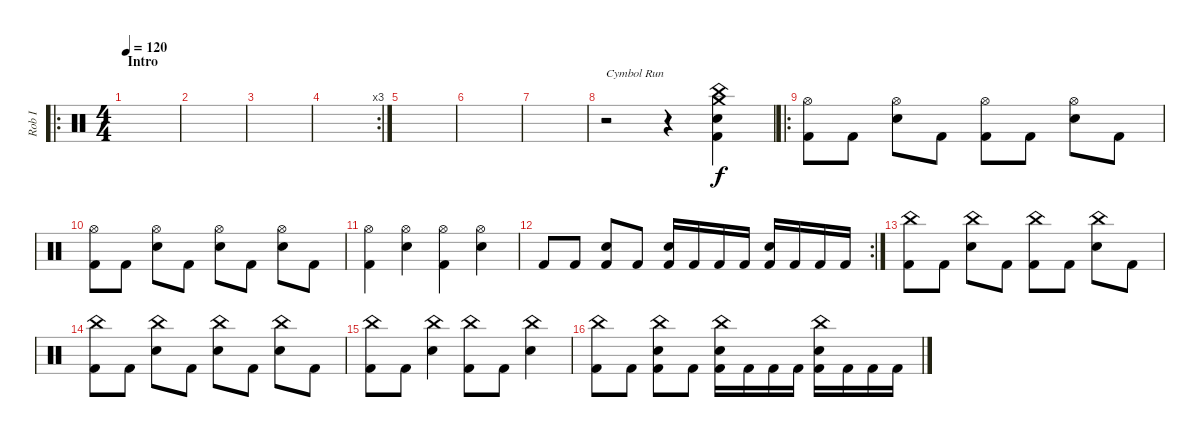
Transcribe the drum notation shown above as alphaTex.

\track ("Rob I" "Rob I") {instrument percussion}
\staff {score}
\articulation defaults
\ro
\ts (4 4)
\section ("" "Intro")
\tempo 120
\clef neutral
\ks c
|
|
|
\rc 3
|
|
|
|
r.2{txt "Cymbol Run"} r.4 ("Crash medium (hit)" "China (hit)" "Kick (hit) 2" "Electric Snare (hit)").4 |
\ro
("Kick (hit) 2" "Hi-Hat (open)").8 "Kick (hit) 2".8 ("Electric Snare (hit)" "Hi-Hat (open)").8 "Kick (hit) 2".8 ("Kick (hit) 2" "Hi-Hat (open)").8 "Kick (hit) 2".8 ("Electric Snare (hit)" "Hi-Hat (open)").8 "Kick (hit) 2".8 |
("Kick (hit) 2" "Hi-Hat (open)").8 "Kick (hit) 2".8 ("Electric Snare (hit)" "Hi-Hat (open)").8 "Kick (hit) 2".8 ("Electric Snare (hit)" "Hi-Hat (open)").8 "Kick (hit) 2".8 ("Electric Snare (hit)" "Hi-Hat (open)").8 "Kick (hit) 2".8 |
("Hi-Hat (open)" "Kick (hit) 2").4 ("Electric Snare (hit)" "Hi-Hat (open)").4 ("Kick (hit) 2" "Hi-Hat (open)").4 ("Hi-Hat (open)" "Electric Snare (hit)").4 |
\rc 2 "Kick (hit) 2".8 "Kick (hit) 2".8
("Kick (hit) 2" "Electric Snare (hit)").8 "Kick (hit) 2".8 ("Kick (hit) 2" "Electric Snare (hit)").16 "Kick (hit) 2".16 "Kick (hit) 2".16 "Kick (hit) 2".16 ("Kick (hit) 2" "Electric Snare (hit)").16 "Kick (hit) 2".16 "Kick (hit) 2".16 "Kick (hit) 2".16 |
("Kick (hit) 2" "China (hit)").8 "Kick (hit) 2".8 ("Electric Snare (hit)" "China (hit)").8 "Kick (hit) 2".8 ("Kick (hit) 2" "China (hit)").8 "Kick (hit) 2".8 ("Electric Snare (hit)" "China (hit)").8 "Kick (hit) 2".8 |
("Kick (hit) 2" "China (hit)").8 "Kick (hit) 2".8 ("Electric Snare (hit)" "China (hit)").8 "Kick (hit) 2".8 ("Electric Snare (hit)" "China (hit)").8 "Kick (hit) 2".8 ("Electric Snare (hit)" "China (hit)").8 "Kick (hit) 2".8 |
("China (hit)" "Kick (hit) 2").8 "Kick (hit) 2".8 ("Electric Snare (hit)" "China (hit)").4 ("Kick (hit) 2" "China (hit)").8 "Kick (hit) 2".8 ("China (hit)" "Electric Snare (hit)").4 |
("Kick (hit) 2" "China (hit)").8 "Kick (hit) 2".8 ("Kick (hit) 2" "Electric Snare (hit)" "China (hit)").8 "Kick (hit) 2".8 ("Kick (hit) 2" "Electric Snare (hit)" "China (hit)").16 "Kick (hit) 2".16 "Kick (hit) 2".16 "Kick (hit) 2".16 ("Kick (hit) 2" "Electric Snare (hit)" "China (hit)").16 "Kick (hit) 2".16 "Kick (hit) 2".16 "Kick (hit) 2".16
